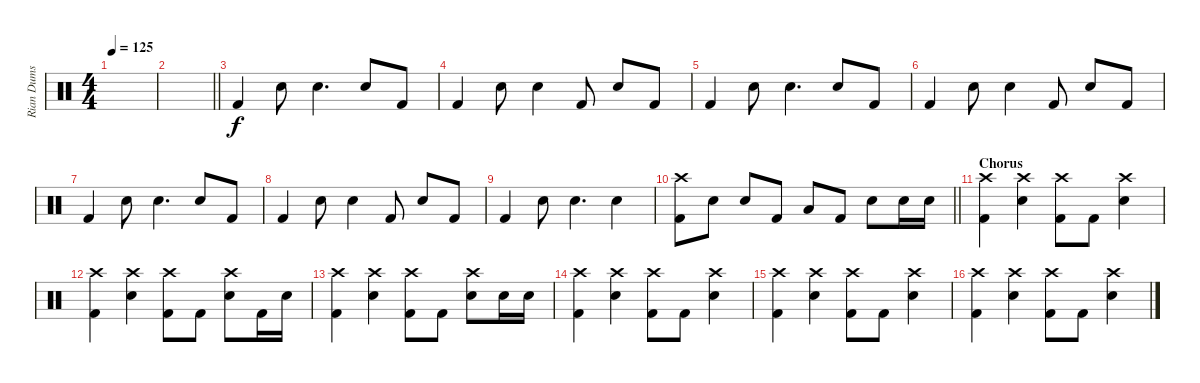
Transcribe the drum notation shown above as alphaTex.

\track ("Rian Dums" "Rian Dums") {instrument percussion}
\staff {score}
\articulation defaults
\ts (4 4)
\tempo 125
\clef neutral
\ks c
|
\barLineRight lightlight
|
"Kick (hit) 2".4 "Snare (hit) 2".8 "Snare (hit) 2".4{d} "Snare (hit) 2".8 "Kick (hit) 2".8 |
"Kick (hit) 2".4 "Snare (hit) 2".8 "Snare (hit) 2".4 "Kick (hit) 2".8 "Snare (hit) 2".8 "Kick (hit) 2".8 |
"Kick (hit) 2".4 "Snare (hit) 2".8 "Snare (hit) 2".4{d} "Snare (hit) 2".8 "Kick (hit) 2".8 |
"Kick (hit) 2".4 "Snare (hit) 2".8 "Snare (hit) 2".4 "Kick (hit) 2".8 "Snare (hit) 2".8 "Kick (hit) 2".8 |
"Kick (hit) 2".4 "Snare (hit) 2".8 "Snare (hit) 2".4{d} "Snare (hit) 2".8 "Kick (hit) 2".8 |
"Kick (hit) 2".4 "Snare (hit) 2".8 "Snare (hit) 2".4 "Kick (hit) 2".8 "Snare (hit) 2".8 "Kick (hit) 2".8 |
"Kick (hit) 2".4 "Snare (hit) 2".8 "Snare (hit) 2".4{d} "Snare (hit) 2".4 |
\barLineRight lightlight
("Crash high (hit)" "Kick (hit) 2").8 "Snare (hit) 2".8 "Snare (hit) 2".8 "Kick (hit) 2".8 "Low Tom (hit)".8 "Kick (hit) 2".8 "Snare (hit) 2".8 "Snare (hit) 2".16 "Snare (hit) 2".16 |
\section ("" "Chorus")
("Crash high (hit)" "Kick (hit) 2").4 ("Crash high (hit)" "Snare (hit) 2").4 ("Crash high (hit)" "Kick (hit) 2").8 "Kick (hit) 2".8 ("Crash high (hit)" "Snare (hit) 2").4 |
("Crash high (hit)" "Kick (hit) 2").4 ("Crash high (hit)" "Snare (hit) 2").4 ("Crash high (hit)" "Kick (hit) 2").8 "Kick (hit) 2".8 ("Crash high (hit)" "Snare (hit) 2").8 "Kick (hit) 2".16 "Snare (hit) 2".16 |
("Crash high (hit)" "Kick (hit) 2").4 ("Crash high (hit)" "Snare (hit) 2").4 ("Crash high (hit)" "Kick (hit) 2").8 "Kick (hit) 2".8 ("Crash high (hit)" "Snare (hit) 2").8 "Snare (hit) 2".16 "Snare (hit) 2".16 |
("Crash high (hit)" "Kick (hit) 2").4 ("Crash high (hit)" "Snare (hit) 2").4 ("Crash high (hit)" "Kick (hit) 2").8 "Kick (hit) 2".8 ("Crash high (hit)" "Snare (hit) 2").4 |
("Crash high (hit)" "Kick (hit) 2").4 ("Crash high (hit)" "Snare (hit) 2").4 ("Crash high (hit)" "Kick (hit) 2").8 "Kick (hit) 2".8 ("Crash high (hit)" "Snare (hit) 2").4 |
("Crash high (hit)" "Kick (hit) 2").4 ("Crash high (hit)" "Snare (hit) 2").4 ("Crash high (hit)" "Kick (hit) 2").8 "Kick (hit) 2".8 ("Crash high (hit)" "Snare (hit) 2").4
